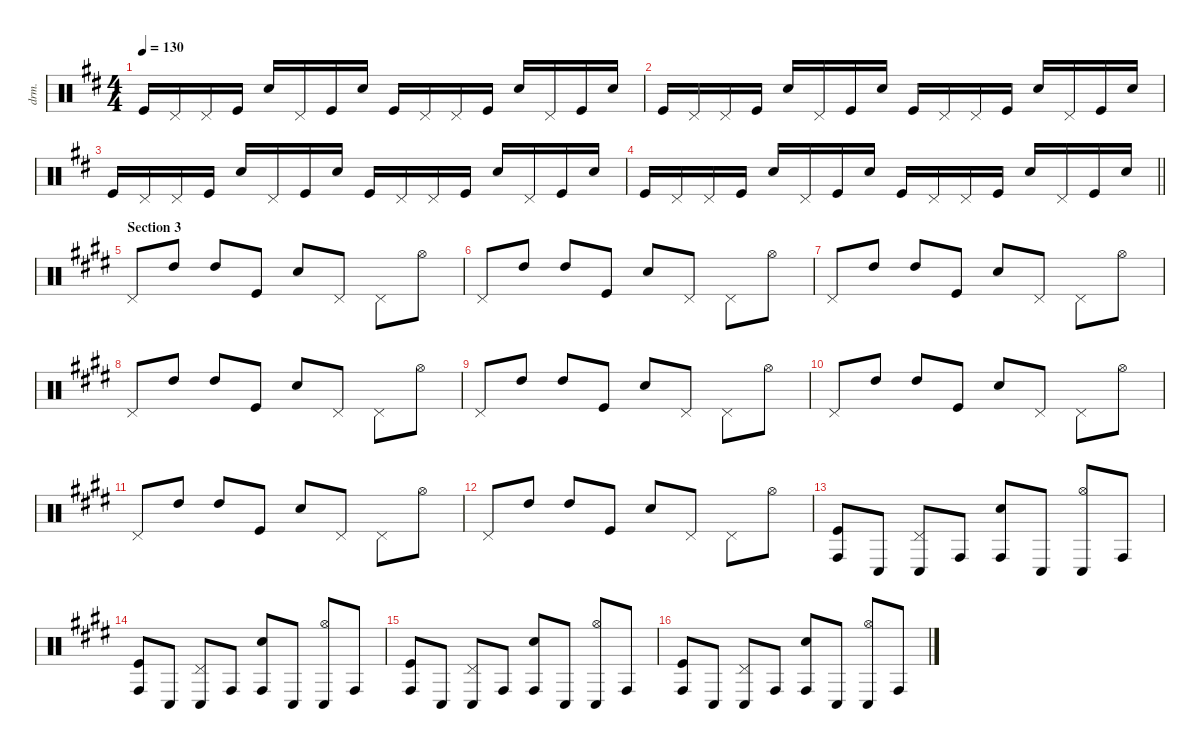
\defaultSystemsLayout 4
\hideDynamics
\bracketExtendMode nobrackets
\otherSystemsTrackNameOrientation horizontal
\track ("Percussion" "drm.") {instrument percussion}
\staff {score}
\articulation defaults
\ts (4 4)
\tempo 130
\clef neutral
\ks d "Kick (hit)"{acc forcenatural}.16{dy f} "Pedal Hi-Hat (hit)"{acc forcenatural}.16 "Pedal Hi-Hat (hit)"{acc forcenatural}.16 "Kick (hit)"{acc forcenatural}.16 "Snare (hit) 2"{acc forcenatural}.16 "Pedal Hi-Hat (hit)"{acc forcenatural}.16 "Kick (hit)"{acc forcenatural}.16 "Snare (hit) 2"{acc forcenatural}.16 "Kick (hit)"{acc forcenatural}.16 "Pedal Hi-Hat (hit)"{acc forcenatural}.16 "Pedal Hi-Hat (hit)"{acc forcenatural}.16 "Kick (hit)"{acc forcenatural}.16 "Snare (hit) 2"{acc forcenatural}.16 "Pedal Hi-Hat (hit)"{acc forcenatural}.16 "Kick (hit)"{acc forcenatural}.16 "Snare (hit) 2"{acc forcenatural}.16
|
"Kick (hit)"{acc forcenatural}.16 "Pedal Hi-Hat (hit)"{acc forcenatural}.16 "Pedal Hi-Hat (hit)"{acc forcenatural}.16 "Kick (hit)"{acc forcenatural}.16 "Snare (hit) 2"{acc forcenatural}.16 "Pedal Hi-Hat (hit)"{acc forcenatural}.16 "Kick (hit)"{acc forcenatural}.16 "Snare (hit) 2"{acc forcenatural}.16 "Kick (hit)"{acc forcenatural}.16 "Pedal Hi-Hat (hit)"{acc forcenatural}.16 "Pedal Hi-Hat (hit)"{acc forcenatural}.16 "Kick (hit)"{acc forcenatural}.16 "Snare (hit) 2"{acc forcenatural}.16 "Pedal Hi-Hat (hit)"{acc forcenatural}.16 "Kick (hit)"{acc forcenatural}.16 "Snare (hit) 2"{acc forcenatural}.16 |
"Kick (hit)"{acc forcenatural}.16 "Pedal Hi-Hat (hit)"{acc forcenatural}.16 "Pedal Hi-Hat (hit)"{acc forcenatural}.16 "Kick (hit)"{acc forcenatural}.16 "Snare (hit) 2"{acc forcenatural}.16 "Pedal Hi-Hat (hit)"{acc forcenatural}.16 "Kick (hit)"{acc forcenatural}.16 "Snare (hit) 2"{acc forcenatural}.16 "Kick (hit)"{acc forcenatural}.16 "Pedal Hi-Hat (hit)"{acc forcenatural}.16 "Pedal Hi-Hat (hit)"{acc forcenatural}.16 "Kick (hit)"{acc forcenatural}.16 "Snare (hit) 2"{acc forcenatural}.16 "Pedal Hi-Hat (hit)"{acc forcenatural}.16 "Kick (hit)"{acc forcenatural}.16 "Snare (hit) 2"{acc forcenatural}.16 |
\barLineRight lightlight "Kick (hit)"{acc forcenatural}.16 "Pedal Hi-Hat (hit)"{acc forcenatural}.16 "Pedal Hi-Hat (hit)"{acc forcenatural}.16 "Kick (hit)"{acc forcenatural}.16 "Snare (hit) 2"{acc forcenatural}.16 "Pedal Hi-Hat (hit)"{acc forcenatural}.16 "Kick (hit)"{acc forcenatural}.16 "Snare (hit) 2"{acc forcenatural}.16 "Kick (hit)"{acc forcenatural}.16 "Pedal Hi-Hat (hit)"{acc forcenatural}.16 "Pedal Hi-Hat (hit)"{acc forcenatural}.16 "Kick (hit)"{acc forcenatural}.16 "Snare (hit) 2"{acc forcenatural}.16 "Pedal Hi-Hat (hit)"{acc forcenatural}.16 "Kick (hit)"{acc forcenatural}.16 "Snare (hit) 2"{acc forcenatural}.16
|
\section ("" "Section 3")
\ks e "Pedal Hi-Hat (hit)"{acc forcenatural}.8 "High Tom (hit)"{acc forcenatural}.8 "High Tom (hit)"{acc forcenatural}.8 "Kick (hit)"{acc forcenatural}.8 "Snare (hit) 2"{acc forcenatural}.8 "Pedal Hi-Hat (hit)"{acc forcenatural}.8 "Pedal Hi-Hat (hit)"{acc forcenatural}.8 "Hi-Hat (open)"{acc forcenatural}.8
|
"Pedal Hi-Hat (hit)"{acc forcenatural}.8 "High Tom (hit)"{acc forcenatural}.8 "High Tom (hit)"{acc forcenatural}.8 "Kick (hit)"{acc forcenatural}.8 "Snare (hit) 2"{acc forcenatural}.8 "Pedal Hi-Hat (hit)"{acc forcenatural}.8 "Pedal Hi-Hat (hit)"{acc forcenatural}.8 "Hi-Hat (open)"{acc forcenatural}.8 |
"Pedal Hi-Hat (hit)"{acc forcenatural}.8 "High Tom (hit)"{acc forcenatural}.8 "High Tom (hit)"{acc forcenatural}.8 "Kick (hit)"{acc forcenatural}.8 "Snare (hit) 2"{acc forcenatural}.8 "Pedal Hi-Hat (hit)"{acc forcenatural}.8 "Pedal Hi-Hat (hit)"{acc forcenatural}.8 "Hi-Hat (open)"{acc forcenatural}.8 |
"Pedal Hi-Hat (hit)"{acc forcenatural}.8 "High Tom (hit)"{acc forcenatural}.8 "High Tom (hit)"{acc forcenatural}.8 "Kick (hit)"{acc forcenatural}.8 "Snare (hit) 2"{acc forcenatural}.8 "Pedal Hi-Hat (hit)"{acc forcenatural}.8 "Pedal Hi-Hat (hit)"{acc forcenatural}.8 "Hi-Hat (open)"{acc forcenatural}.8 |
"Pedal Hi-Hat (hit)"{acc forcenatural}.8 "High Tom (hit)"{acc forcenatural}.8 "High Tom (hit)"{acc forcenatural}.8 "Kick (hit)"{acc forcenatural}.8 "Snare (hit) 2"{acc forcenatural}.8 "Pedal Hi-Hat (hit)"{acc forcenatural}.8 "Pedal Hi-Hat (hit)"{acc forcenatural}.8 "Hi-Hat (open)"{acc forcenatural}.8 |
"Pedal Hi-Hat (hit)"{acc forcenatural}.8 "High Tom (hit)"{acc forcenatural}.8 "High Tom (hit)"{acc forcenatural}.8 "Kick (hit)"{acc forcenatural}.8 "Snare (hit) 2"{acc forcenatural}.8 "Pedal Hi-Hat (hit)"{acc forcenatural}.8 "Pedal Hi-Hat (hit)"{acc forcenatural}.8 "Hi-Hat (open)"{acc forcenatural}.8 |
"Pedal Hi-Hat (hit)"{acc forcenatural}.8 "High Tom (hit)"{acc forcenatural}.8 "High Tom (hit)"{acc forcenatural}.8 "Kick (hit)"{acc forcenatural}.8 "Snare (hit) 2"{acc forcenatural}.8 "Pedal Hi-Hat (hit)"{acc forcenatural}.8 "Pedal Hi-Hat (hit)"{acc forcenatural}.8 "Hi-Hat (open)"{acc forcenatural}.8 |
"Pedal Hi-Hat (hit)"{acc forcenatural}.8 "High Tom (hit)"{acc forcenatural}.8 "High Tom (hit)"{acc forcenatural}.8 "Kick (hit)"{acc forcenatural}.8 "Snare (hit) 2"{acc forcenatural}.8 "Pedal Hi-Hat (hit)"{acc forcenatural}.8 "Pedal Hi-Hat (hit)"{acc forcenatural}.8 "Hi-Hat (open)"{acc forcenatural}.8 |
("Conga high (hit)"{acc forcenatural} "Kick (hit)"{acc forcenatural}).8 "Conga low (hit)"{acc forcenatural}.8 ("Pedal Hi-Hat (hit)"{acc forcenatural} "Conga low (hit)"{acc forcenatural}).8 "Conga high (hit)"{acc forcenatural}.8 ("Conga high (hit)"{acc forcenatural} "Snare (hit) 2"{acc forcenatural}).8 "Conga low (hit)"{acc forcenatural}.8 ("Hi-Hat (open)"{acc forcenatural} "Conga low (hit)"{acc forcenatural}).8 "Conga high (hit)"{acc forcenatural}.8 |
("Conga high (hit)"{acc forcenatural} "Kick (hit)"{acc forcenatural}).8 "Conga low (hit)"{acc forcenatural}.8 ("Pedal Hi-Hat (hit)"{acc forcenatural} "Conga low (hit)"{acc forcenatural}).8 "Conga high (hit)"{acc forcenatural}.8 ("Conga high (hit)"{acc forcenatural} "Snare (hit) 2"{acc forcenatural}).8 "Conga low (hit)"{acc forcenatural}.8 ("Hi-Hat (open)"{acc forcenatural} "Conga low (hit)"{acc forcenatural}).8 "Conga high (hit)"{acc forcenatural}.8 |
("Conga high (hit)"{acc forcenatural} "Kick (hit)"{acc forcenatural}).8 "Conga low (hit)"{acc forcenatural}.8 ("Pedal Hi-Hat (hit)"{acc forcenatural} "Conga low (hit)"{acc forcenatural}).8 "Conga high (hit)"{acc forcenatural}.8 ("Conga high (hit)"{acc forcenatural} "Snare (hit) 2"{acc forcenatural}).8 "Conga low (hit)"{acc forcenatural}.8 ("Hi-Hat (open)"{acc forcenatural} "Conga low (hit)"{acc forcenatural}).8 "Conga high (hit)"{acc forcenatural}.8 |
("Conga high (hit)"{acc forcenatural} "Kick (hit)"{acc forcenatural}).8 "Conga low (hit)"{acc forcenatural}.8 ("Pedal Hi-Hat (hit)"{acc forcenatural} "Conga low (hit)"{acc forcenatural}).8 "Conga high (hit)"{acc forcenatural}.8 ("Conga high (hit)"{acc forcenatural} "Snare (hit) 2"{acc forcenatural}).8 "Conga low (hit)"{acc forcenatural}.8 ("Hi-Hat (open)"{acc forcenatural} "Conga low (hit)"{acc forcenatural}).8 "Conga high (hit)"{acc forcenatural}.8
